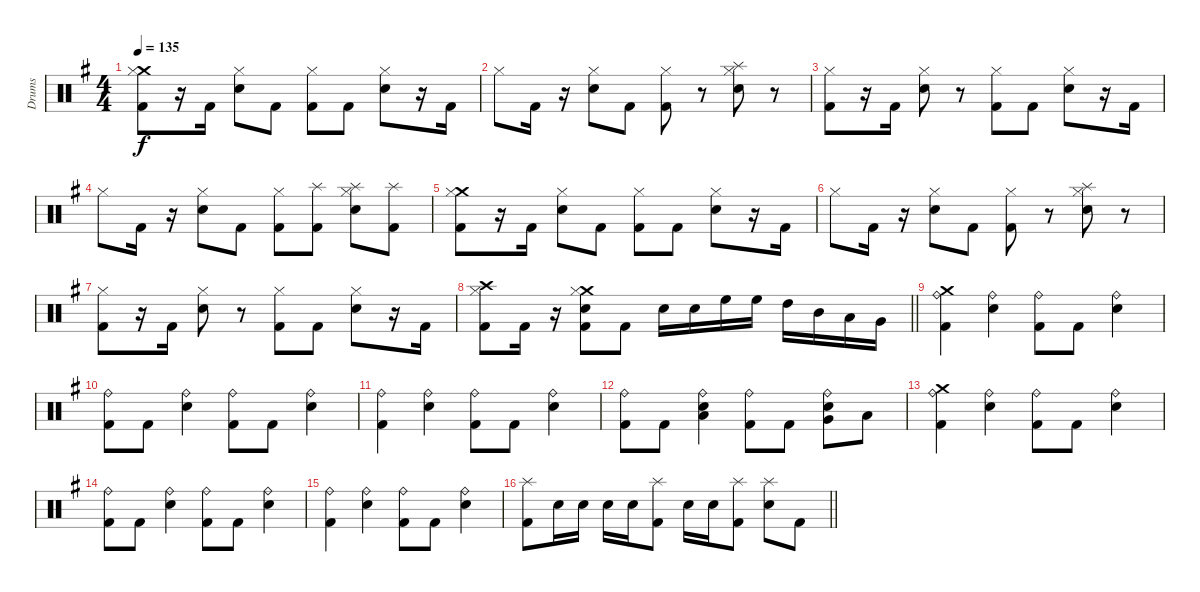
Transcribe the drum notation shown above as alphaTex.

\track ("Drums" "Drums") {instrument percussion}
\staff {score}
\articulation defaults
\ts (4 4)
\tempo 135
\clef neutral
\ks eminor
("Crash medium (hit)" "Hi-Hat (closed)" "Kick (hit) 2").8{dy f} r.16 "Kick (hit) 2".16 ("Hi-Hat (closed)" "Electric Snare (hit)").8 "Kick (hit) 2".8 ("Hi-Hat (closed)" "Kick (hit) 2").8 "Kick (hit) 2".8 ("Hi-Hat (closed)" "Electric Snare (hit)").8 r.16 "Kick (hit) 2".16 |
"Hi-Hat (closed)".8 "Kick (hit) 2".16 r.16 ("Hi-Hat (closed)" "Electric Snare (hit)").8 "Kick (hit) 2".8 ("Hi-Hat (closed)" "Kick (hit) 2").8 r.8 ("Splash (hit)" "Hi-Hat (closed)" "Electric Snare (hit)").8 r.8 |
("Hi-Hat (closed)" "Kick (hit) 2").8 r.16 "Kick (hit) 2".16 ("Hi-Hat (closed)" "Electric Snare (hit)").8 r.8 ("Hi-Hat (closed)" "Kick (hit) 2").8 "Kick (hit) 2".8 ("Hi-Hat (closed)" "Electric Snare (hit)").8 r.16 "Kick (hit) 2".16 |
"Hi-Hat (closed)".8 "Kick (hit) 2".16 r.16 ("Hi-Hat (closed)" "Electric Snare (hit)").8 "Kick (hit) 2".8 ("Hi-Hat (closed)" "Kick (hit) 2").8 ("Splash (hit)" "Kick (hit) 2").8 ("Splash (hit)" "Hi-Hat (closed)" "Electric Snare (hit)").8 ("Splash (hit)" "Kick (hit) 2").8 |
("Crash medium (hit)" "Hi-Hat (closed)" "Kick (hit) 2").8 r.16 "Kick (hit) 2".16 ("Hi-Hat (closed)" "Electric Snare (hit)").8 "Kick (hit) 2".8 ("Hi-Hat (closed)" "Kick (hit) 2").8 "Kick (hit) 2".8 ("Hi-Hat (closed)" "Electric Snare (hit)").8 r.16 "Kick (hit) 2".16 |
"Hi-Hat (closed)".8 "Kick (hit) 2".16 r.16 ("Hi-Hat (closed)" "Electric Snare (hit)").8 "Kick (hit) 2".8 ("Hi-Hat (closed)" "Kick (hit) 2").8 r.8 ("Splash (hit)" "Hi-Hat (closed)" "Electric Snare (hit)").8 r.8 |
("Hi-Hat (closed)" "Kick (hit) 2").8 r.16 "Kick (hit) 2".16 ("Hi-Hat (closed)" "Electric Snare (hit)").8 r.8 ("Hi-Hat (closed)" "Kick (hit) 2").8 "Kick (hit) 2".8 ("Hi-Hat (closed)" "Electric Snare (hit)").8 r.16 "Kick (hit) 2".16 |
\barLineRight lightlight
("Crash high (hit)" "Hi-Hat (closed)" "Kick (hit) 2").8 "Kick (hit) 2".16 r.16 ("Crash medium (hit)" "Hi-Hat (closed)" "Electric Snare (hit)" "Kick (hit) 2").8 "Kick (hit) 2".8 "Electric Snare (hit)".16 "Electric Snare (hit)".16 "High Floor Tom (hit)".16 "High Floor Tom (hit)".16 "High Tom (hit)".16 "Mid Tom (hit)".16 "Low Tom (hit)".16 "Very Low Tom (hit)".16 |
\section ("" "")
("Crash medium (hit)" "Ride (bell)" "Kick (hit) 2").4 ("Ride (bell)" "Electric Snare (hit)").4 ("Ride (bell)" "Kick (hit) 2").8 "Kick (hit) 2".8 ("Ride (bell)" "Electric Snare (hit)").4 |
("Ride (bell)" "Kick (hit) 2").8 "Kick (hit) 2".8 ("Ride (bell)" "Electric Snare (hit)").4 ("Ride (bell)" "Kick (hit) 2").8 "Kick (hit) 2".8 ("Ride (bell)" "Electric Snare (hit)").4 |
("Ride (bell)" "Kick (hit) 2").4 ("Ride (bell)" "Electric Snare (hit)").4 ("Ride (bell)" "Kick (hit) 2").8 "Kick (hit) 2".8 ("Ride (bell)" "Electric Snare (hit)").4 |
("Ride (bell)" "Kick (hit) 2").8 "Kick (hit) 2".8 ("Ride (bell)" "Electric Snare (hit)" "Low Tom (hit)").4 ("Ride (bell)" "Kick (hit) 2").8 "Kick (hit) 2".8 ("Ride (bell)" "Electric Snare (hit)" "Very Low Tom (hit)").8 "Low Floor Tom (hit)".8 |
("Crash medium (hit)" "Ride (bell)" "Kick (hit) 2").4 ("Ride (bell)" "Electric Snare (hit)").4 ("Ride (bell)" "Kick (hit) 2").8 "Kick (hit) 2".8 ("Ride (bell)" "Electric Snare (hit)").4 |
("Ride (bell)" "Kick (hit) 2").8 "Kick (hit) 2".8 ("Ride (bell)" "Electric Snare (hit)").4 ("Ride (bell)" "Kick (hit) 2").8 "Kick (hit) 2".8 ("Ride (bell)" "Electric Snare (hit)").4 |
("Ride (bell)" "Kick (hit) 2").4 ("Ride (bell)" "Electric Snare (hit)").4 ("Ride (bell)" "Kick (hit) 2").8 "Kick (hit) 2".8 ("Ride (bell)" "Electric Snare (hit)").4 |
\barLineRight lightlight
("Splash (hit)" "Kick (hit) 2").8 "Electric Snare (hit)".16 "Electric Snare (hit)".16 "Electric Snare (hit)".16 "Electric Snare (hit)".16 ("Splash (hit)" "Kick (hit) 2").8 "Electric Snare (hit)".16 "Electric Snare (hit)".16 ("Splash (hit)" "Kick (hit) 2").8 ("Splash (hit)" "Electric Snare (hit)").8 "Kick (hit) 2".8
